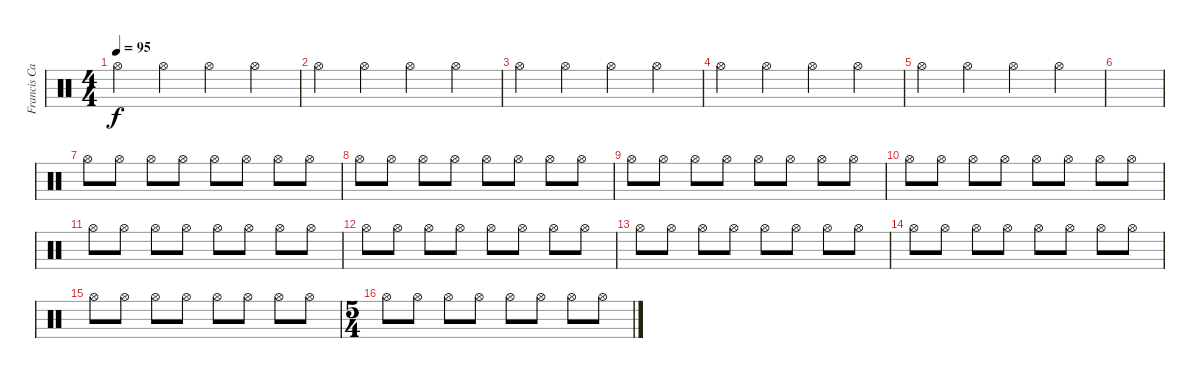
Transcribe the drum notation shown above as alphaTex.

\track ("Francis Cassol 2" "Francis Ca") {instrument percussion}
\staff {score}
\articulation defaults
\ts (4 4)
\tempo 95
\clef neutral
\ks c "Hi-Hat (open)".4{dy f} "Hi-Hat (open)".4 "Hi-Hat (open)".4 "Hi-Hat (open)".4
|
"Hi-Hat (open)".4 "Hi-Hat (open)".4 "Hi-Hat (open)".4 "Hi-Hat (open)".4 |
"Hi-Hat (open)".4 "Hi-Hat (open)".4 "Hi-Hat (open)".4 "Hi-Hat (open)".4 |
"Hi-Hat (open)".4 "Hi-Hat (open)".4 "Hi-Hat (open)".4 "Hi-Hat (open)".4 |
"Hi-Hat (open)".4 "Hi-Hat (open)".4 "Hi-Hat (open)".4 "Hi-Hat (open)".4 |
|
"Hi-Hat (open)".8 "Hi-Hat (open)".8 "Hi-Hat (open)".8 "Hi-Hat (open)".8 "Hi-Hat (open)".8 "Hi-Hat (open)".8 "Hi-Hat (open)".8 "Hi-Hat (open)".8 |
"Hi-Hat (open)".8 "Hi-Hat (open)".8 "Hi-Hat (open)".8 "Hi-Hat (open)".8 "Hi-Hat (open)".8 "Hi-Hat (open)".8 "Hi-Hat (open)".8 "Hi-Hat (open)".8 |
"Hi-Hat (open)".8 "Hi-Hat (open)".8 "Hi-Hat (open)".8 "Hi-Hat (open)".8 "Hi-Hat (open)".8 "Hi-Hat (open)".8 "Hi-Hat (open)".8 "Hi-Hat (open)".8 |
"Hi-Hat (open)".8 "Hi-Hat (open)".8 "Hi-Hat (open)".8 "Hi-Hat (open)".8 "Hi-Hat (open)".8 "Hi-Hat (open)".8 "Hi-Hat (open)".8 "Hi-Hat (open)".8 |
"Hi-Hat (open)".8 "Hi-Hat (open)".8 "Hi-Hat (open)".8 "Hi-Hat (open)".8 "Hi-Hat (open)".8 "Hi-Hat (open)".8 "Hi-Hat (open)".8 "Hi-Hat (open)".8 |
"Hi-Hat (open)".8 "Hi-Hat (open)".8 "Hi-Hat (open)".8 "Hi-Hat (open)".8 "Hi-Hat (open)".8 "Hi-Hat (open)".8 "Hi-Hat (open)".8 "Hi-Hat (open)".8 |
"Hi-Hat (open)".8 "Hi-Hat (open)".8 "Hi-Hat (open)".8 "Hi-Hat (open)".8 "Hi-Hat (open)".8 "Hi-Hat (open)".8 "Hi-Hat (open)".8 "Hi-Hat (open)".8 |
"Hi-Hat (open)".8 "Hi-Hat (open)".8 "Hi-Hat (open)".8 "Hi-Hat (open)".8 "Hi-Hat (open)".8 "Hi-Hat (open)".8 "Hi-Hat (open)".8 "Hi-Hat (open)".8 |
"Hi-Hat (open)".8 "Hi-Hat (open)".8 "Hi-Hat (open)".8 "Hi-Hat (open)".8 "Hi-Hat (open)".8 "Hi-Hat (open)".8 "Hi-Hat (open)".8 "Hi-Hat (open)".8 |
\ts (5 4)
"Hi-Hat (open)".8 "Hi-Hat (open)".8 "Hi-Hat (open)".8 "Hi-Hat (open)".8 "Hi-Hat (open)".8 "Hi-Hat (open)".8 "Hi-Hat (open)".8 "Hi-Hat (open)".8
